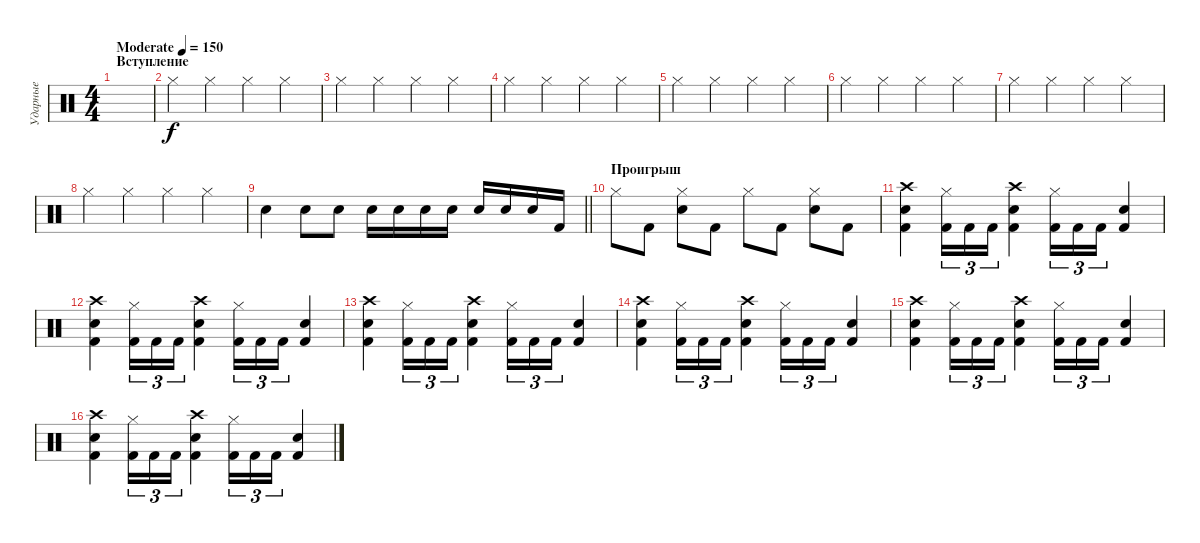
\track ("Ударные" "Ударные") {instrument percussion}
\staff {score}
\articulation defaults
\ts (4 4)
\section ("" "Вступление")
\tempo (150 "Moderate")
\clef neutral
\ks c
|
"Hi-Hat (closed)".4 "Hi-Hat (closed)".4 "Hi-Hat (closed)".4 "Hi-Hat (closed)".4 |
"Hi-Hat (closed)".4 "Hi-Hat (closed)".4 "Hi-Hat (closed)".4 "Hi-Hat (closed)".4 |
"Hi-Hat (closed)".4 "Hi-Hat (closed)".4 "Hi-Hat (closed)".4 "Hi-Hat (closed)".4 |
"Hi-Hat (closed)".4 "Hi-Hat (closed)".4 "Hi-Hat (closed)".4 "Hi-Hat (closed)".4 |
"Hi-Hat (closed)".4 "Hi-Hat (closed)".4 "Hi-Hat (closed)".4 "Hi-Hat (closed)".4 |
"Hi-Hat (closed)".4 "Hi-Hat (closed)".4 "Hi-Hat (closed)".4 "Hi-Hat (closed)".4 |
"Hi-Hat (closed)".4 "Hi-Hat (closed)".4 "Hi-Hat (closed)".4 "Hi-Hat (closed)".4 |
\barLineRight lightlight "Snare (hit) 2".4 "Snare (hit) 2".8 "Snare (hit) 2".8 "Snare (hit) 2".16 "Snare (hit) 2".16 "Snare (hit) 2".16 "Snare (hit) 2".16 "Snare (hit) 2".16 "Snare (hit) 2".16 "Snare (hit) 2".16 "Kick (hit) 2".16
|
\section ("" "Проигрыш")
"Hi-Hat (closed)".8 "Kick (hit) 2".8 ("Hi-Hat (closed)" "Snare (hit) 2").8 "Kick (hit) 2".8 "Hi-Hat (closed)".8 "Kick (hit) 2".8 ("Hi-Hat (closed)" "Snare (hit) 2").8 "Kick (hit) 2".8 |
("Kick (hit) 2" "Crash high (hit)" "Snare (hit) 2").4 ("Hi-Hat (closed)" "Kick (hit) 2").16{tu (3 2)} "Kick (hit) 2".16{tu (3 2)} "Kick (hit) 2".16{tu (3 2)} ("Crash high (hit)" "Snare (hit) 2" "Kick (hit) 2").4 ("Hi-Hat (closed)" "Kick (hit) 2").16{tu (3 2)} "Kick (hit) 2".16{tu (3 2)} "Kick (hit) 2".16{tu (3 2)} ("Snare (hit) 2" "Kick (hit) 2").4 |
("Kick (hit) 2" "Crash high (hit)" "Snare (hit) 2").4 ("Hi-Hat (closed)" "Kick (hit) 2").16{tu (3 2)} "Kick (hit) 2".16{tu (3 2)} "Kick (hit) 2".16{tu (3 2)} ("Crash high (hit)" "Snare (hit) 2" "Kick (hit) 2").4 ("Hi-Hat (closed)" "Kick (hit) 2").16{tu (3 2)} "Kick (hit) 2".16{tu (3 2)} "Kick (hit) 2".16{tu (3 2)} ("Snare (hit) 2" "Kick (hit) 2").4 |
("Kick (hit) 2" "Crash high (hit)" "Snare (hit) 2").4 ("Hi-Hat (closed)" "Kick (hit) 2").16{tu (3 2)} "Kick (hit) 2".16{tu (3 2)} "Kick (hit) 2".16{tu (3 2)} ("Crash high (hit)" "Snare (hit) 2" "Kick (hit) 2").4 ("Hi-Hat (closed)" "Kick (hit) 2").16{tu (3 2)} "Kick (hit) 2".16{tu (3 2)} "Kick (hit) 2".16{tu (3 2)} ("Snare (hit) 2" "Kick (hit) 2").4 |
("Kick (hit) 2" "Crash high (hit)" "Snare (hit) 2").4 ("Hi-Hat (closed)" "Kick (hit) 2").16{tu (3 2)} "Kick (hit) 2".16{tu (3 2)} "Kick (hit) 2".16{tu (3 2)} ("Crash high (hit)" "Snare (hit) 2" "Kick (hit) 2").4 ("Hi-Hat (closed)" "Kick (hit) 2").16{tu (3 2)} "Kick (hit) 2".16{tu (3 2)} "Kick (hit) 2".16{tu (3 2)} ("Snare (hit) 2" "Kick (hit) 2").4 |
("Kick (hit) 2" "Crash high (hit)" "Snare (hit) 2").4 ("Hi-Hat (closed)" "Kick (hit) 2").16{tu (3 2)} "Kick (hit) 2".16{tu (3 2)} "Kick (hit) 2".16{tu (3 2)} ("Crash high (hit)" "Snare (hit) 2" "Kick (hit) 2").4 ("Hi-Hat (closed)" "Kick (hit) 2").16{tu (3 2)} "Kick (hit) 2".16{tu (3 2)} "Kick (hit) 2".16{tu (3 2)} ("Snare (hit) 2" "Kick (hit) 2").4 |
("Kick (hit) 2" "Crash high (hit)" "Snare (hit) 2").4 ("Hi-Hat (closed)" "Kick (hit) 2").16{tu (3 2)} "Kick (hit) 2".16{tu (3 2)} "Kick (hit) 2".16{tu (3 2)} ("Crash high (hit)" "Snare (hit) 2" "Kick (hit) 2").4 ("Hi-Hat (closed)" "Kick (hit) 2").16{tu (3 2)} "Kick (hit) 2".16{tu (3 2)} "Kick (hit) 2".16{tu (3 2)} ("Snare (hit) 2" "Kick (hit) 2").4
